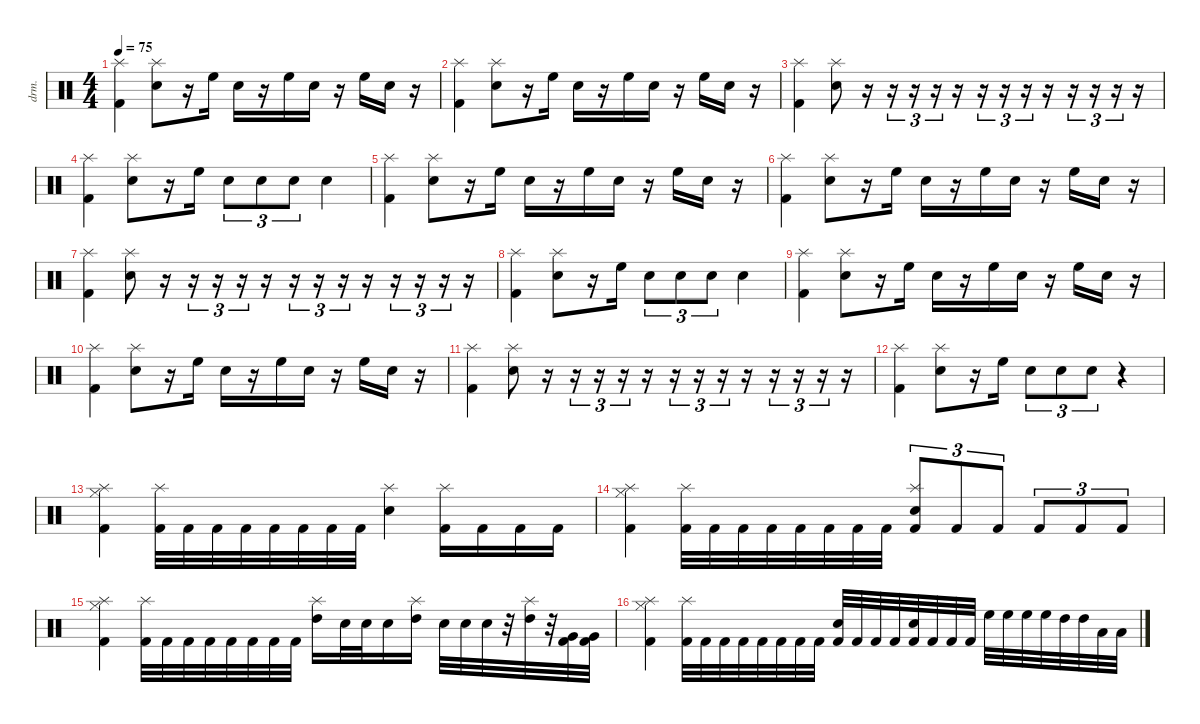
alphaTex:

\defaultSystemsLayout 4
\hideDynamics
\bracketExtendMode nobrackets
\otherSystemsTrackNameOrientation horizontal
\track ("Drumkit" "drm.") {instrument percussion}
\staff {score}
\articulation defaults
\ts (4 4)
\tempo 75
\clef neutral
\ks c
("Kick (hit) 2" "Splash (hit)").4{dy mf beam Down} ("Snare (hit) 2" "Splash (hit)").8{beam Down} r.16{beam Down} "High Floor Tom (hit)".16{beam Down} "Snare (hit) 2".16{beam Down} r.16{beam Down} "High Floor Tom (hit)".16{beam Down} "Snare (hit) 2".16{beam Down} r.16{beam Down} "High Floor Tom (hit)".16{beam Down} "Snare (hit) 2".16{beam Down} r.16{beam Down} |
("Kick (hit) 2" "Splash (hit)").4{beam Down} ("Snare (hit) 2" "Splash (hit)").8{beam Down} r.16{beam Down} "High Floor Tom (hit)".16{beam Down} "Snare (hit) 2".16{beam Down} r.16{beam Down} "High Floor Tom (hit)".16{beam Down} "Snare (hit) 2".16{beam Down} r.16{beam Down} "High Floor Tom (hit)".16{beam Down} "Snare (hit) 2".16{beam Down} r.16{beam Down} |
("Kick (hit) 2" "Splash (hit)").4{beam Down} ("Snare (hit) 2" "Splash (hit)").8{beam Down} r.16{beam Down} r.16{tu (3 2) beam Down} r.16{tu (3 2) beam Down} r.16{tu (3 2) beam Down} r.16{beam Down} r.16{tu (3 2) beam Down} r.16{tu (3 2) beam Down} r.16{tu (3 2) beam Down} r.16{beam Down} r.16{tu (3 2) beam Down} r.16{tu (3 2) beam Down} r.16{tu (3 2) beam Down} r.16{beam Down} |
("Kick (hit) 2" "Splash (hit)").4{beam Down} ("Snare (hit) 2" "Splash (hit)").8{beam Down} r.16{beam Down} "High Floor Tom (hit)".16{beam Down} "Snare (hit) 2".8{tu (3 2) beam Down} "Snare (hit) 2".8{tu (3 2) beam Down} "Snare (hit) 2".8{tu (3 2) beam Down} "Snare (hit) 2".4{beam Down} |
("Kick (hit) 2" "Splash (hit)").4{beam Down} ("Snare (hit) 2" "Splash (hit)").8{beam Down} r.16{beam Down} "High Floor Tom (hit)".16{beam Down} "Snare (hit) 2".16{beam Down} r.16{beam Down} "High Floor Tom (hit)".16{beam Down} "Snare (hit) 2".16{beam Down} r.16{beam Down} "High Floor Tom (hit)".16{beam Down} "Snare (hit) 2".16{beam Down} r.16{beam Down} |
("Kick (hit) 2" "Splash (hit)").4{beam Down} ("Snare (hit) 2" "Splash (hit)").8{beam Down} r.16{beam Down} "High Floor Tom (hit)".16{beam Down} "Snare (hit) 2".16{beam Down} r.16{beam Down} "High Floor Tom (hit)".16{beam Down} "Snare (hit) 2".16{beam Down} r.16{beam Down} "High Floor Tom (hit)".16{beam Down} "Snare (hit) 2".16{beam Down} r.16{beam Down} |
("Kick (hit) 2" "Splash (hit)").4{beam Down} ("Snare (hit) 2" "Splash (hit)").8{beam Down} r.16{beam Down} r.16{tu (3 2) beam Down} r.16{tu (3 2) beam Down} r.16{tu (3 2) beam Down} r.16{beam Down} r.16{tu (3 2) beam Down} r.16{tu (3 2) beam Down} r.16{tu (3 2) beam Down} r.16{beam Down} r.16{tu (3 2) beam Down} r.16{tu (3 2) beam Down} r.16{tu (3 2) beam Down} r.16{beam Down} |
("Kick (hit) 2" "Splash (hit)").4{beam Down} ("Snare (hit) 2" "Splash (hit)").8{beam Down} r.16{beam Down} "High Floor Tom (hit)".16{beam Down} "Snare (hit) 2".8{tu (3 2) beam Down} "Snare (hit) 2".8{tu (3 2) beam Down} "Snare (hit) 2".8{tu (3 2) beam Down} "Snare (hit) 2".4{beam Down} |
("Kick (hit) 2" "Splash (hit)").4{beam Down} ("Snare (hit) 2" "Splash (hit)").8{beam Down} r.16{beam Down} "High Floor Tom (hit)".16{beam Down} "Snare (hit) 2".16{beam Down} r.16{beam Down} "High Floor Tom (hit)".16{beam Down} "Snare (hit) 2".16{beam Down} r.16{beam Down} "High Floor Tom (hit)".16{beam Down} "Snare (hit) 2".16{beam Down} r.16{beam Down} |
("Kick (hit) 2" "Splash (hit)").4{beam Down} ("Snare (hit) 2" "Splash (hit)").8{beam Down} r.16{beam Down} "High Floor Tom (hit)".16{beam Down} "Snare (hit) 2".16{beam Down} r.16{beam Down} "High Floor Tom (hit)".16{beam Down} "Snare (hit) 2".16{beam Down} r.16{beam Down} "High Floor Tom (hit)".16{beam Down} "Snare (hit) 2".16{beam Down} r.16{beam Down} |
("Kick (hit) 2" "Splash (hit)").4{beam Down} ("Snare (hit) 2" "Splash (hit)").8{beam Down} r.16{beam Down} r.16{tu (3 2) beam Down} r.16{tu (3 2) beam Down} r.16{tu (3 2) beam Down} r.16{beam Down} r.16{tu (3 2) beam Down} r.16{tu (3 2) beam Down} r.16{tu (3 2) beam Down} r.16{beam Down} r.16{tu (3 2) beam Down} r.16{tu (3 2) beam Down} r.16{tu (3 2) beam Down} r.16{beam Down} |
("Kick (hit) 2" "Splash (hit)").4{beam Down} ("Snare (hit) 2" "Splash (hit)").8{beam Down} r.16{beam Down} "High Floor Tom (hit)".16{beam Down} "Snare (hit) 2".8{tu (3 2) beam Down} "Snare (hit) 2".8{tu (3 2) beam Down} "Snare (hit) 2".8{tu (3 2) beam Down} r.4{beam Down} |
("Splash (hit)" "Kick (hit) 2" "Hi-Hat (closed)").4{beam Down} ("Splash (hit)" "Kick (hit) 2").32{beam Down} "Kick (hit) 2".32{beam Down} "Kick (hit) 2".32{beam Down} "Kick (hit) 2".32{beam Down} "Kick (hit) 2".32{beam Down} "Kick (hit) 2".32{beam Down} "Kick (hit) 2".32{beam Down} "Kick (hit) 2".32{beam Down} ("Splash (hit)" "Snare (hit) 2").4{beam Down} ("Splash (hit)" "Kick (hit) 2").16{beam Down} "Kick (hit) 2".16{beam Down} "Kick (hit) 2".16{beam Down} "Kick (hit) 2".16{beam Down} |
("Splash (hit)" "Kick (hit) 2" "Hi-Hat (closed)").4{beam Down} ("Splash (hit)" "Kick (hit) 2").32{beam Down} "Kick (hit) 2".32{beam Down} "Kick (hit) 2".32{beam Down} "Kick (hit) 2".32{beam Down} "Kick (hit) 2".32{beam Down} "Kick (hit) 2".32{beam Down} "Kick (hit) 2".32{beam Down} "Kick (hit) 2".32{beam Down} ("Kick (hit) 2" "Splash (hit)" "Snare (hit) 2").8{tu (3 2) beam Up} "Kick (hit) 2".8{tu (3 2) beam Up} "Kick (hit) 2".8{tu (3 2) beam Up} "Kick (hit) 2".8{tu (3 2) beam Up} "Kick (hit) 2".8{tu (3 2) beam Up} "Kick (hit) 2".8{tu (3 2) beam Up} |
("Splash (hit)" "Kick (hit) 2" "Hi-Hat (closed)").4{beam Down} ("Splash (hit)" "Kick (hit) 2").32{beam Down} "Kick (hit) 2".32{beam Down} "Kick (hit) 2".32{beam Down} "Kick (hit) 2".32{beam Down} "Kick (hit) 2".32{beam Down} "Kick (hit) 2".32{beam Down} "Kick (hit) 2".32{beam Down} "Kick (hit) 2".32{beam Down} ("High Tom (hit)" "Splash (hit)").16{beam Down} "Snare (hit) 2".32{beam Down} "Snare (hit) 2".32{beam Down} "Snare (hit) 2".16{beam Down} ("High Tom (hit)" "Splash (hit)").16{beam Down} "Snare (hit) 2".32{beam Down} "Snare (hit) 2".32{beam Down} "Snare (hit) 2".32{beam Down} r.32{beam Down} ("High Tom (hit)" "Splash (hit)").32{beam Down} r.32{beam Down} ("Very Low Tom (hit)" "Kick (hit) 2").32{beam Down} ("Very Low Tom (hit)" "Kick (hit) 2").32{beam Down} |
("Splash (hit)" "Kick (hit) 2" "Hi-Hat (closed)").4{beam Down} ("Splash (hit)" "Kick (hit) 2").32{beam Down} "Kick (hit) 2".32{beam Down} "Kick (hit) 2".32{beam Down} "Kick (hit) 2".32{beam Down} "Kick (hit) 2".32{beam Down} "Kick (hit) 2".32{beam Down} "Kick (hit) 2".32{beam Down} "Kick (hit) 2".32{beam Down} ("Kick (hit) 2" "Snare (hit) 2").32{beam Up} "Kick (hit) 2".32{beam Up} "Kick (hit) 2".32{beam Up} "Kick (hit) 2".32{beam Up} ("Kick (hit) 2" "Snare (hit) 2").32{beam Up} "Kick (hit) 2".32{beam Up} "Kick (hit) 2".32{beam Up} "Kick (hit) 2".32{beam Up} "High Floor Tom (hit)".32{beam Down} "High Floor Tom (hit)".32{beam Down} "High Floor Tom (hit)".32{beam Down} "High Floor Tom (hit)".32{beam Down} "High Tom (hit)".32{beam Down} "High Tom (hit)".32{beam Down} "Low Tom (hit)".32{beam Down} "Low Tom (hit)".32{beam Down}
